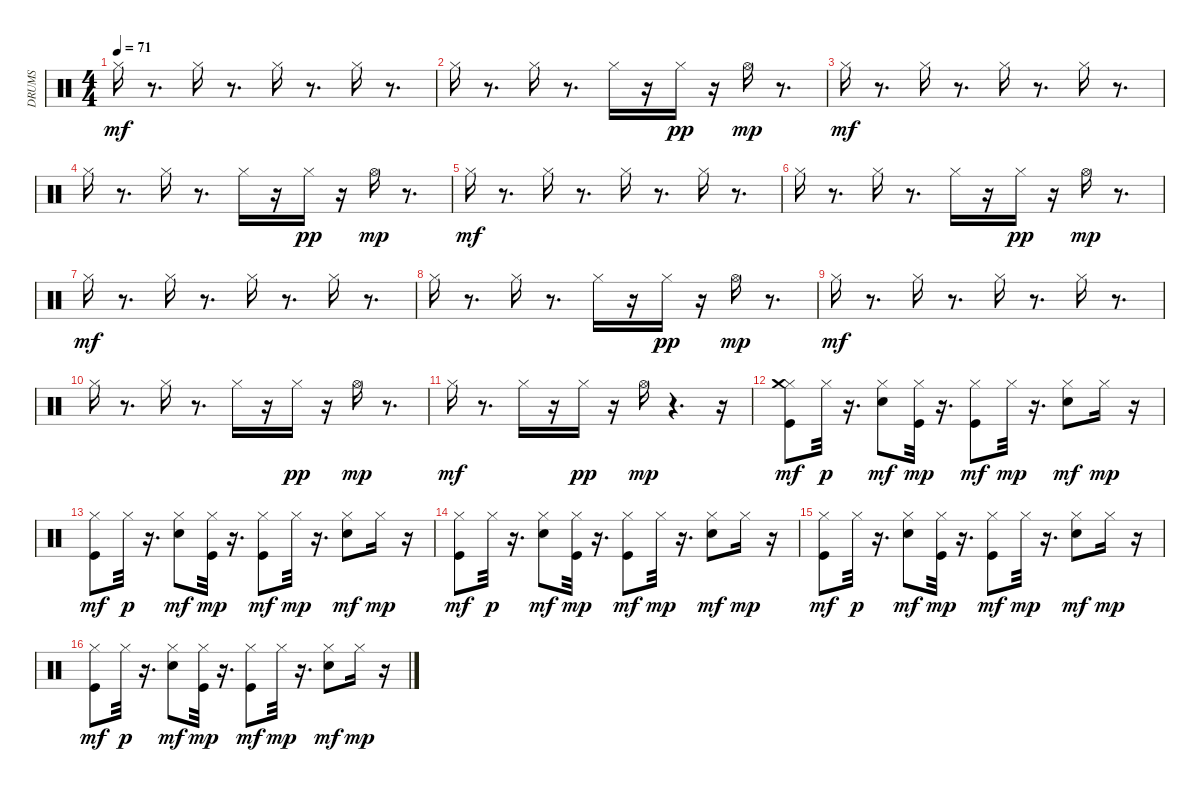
\track ("DRUMS" "DRUMS") {instrument percussion}
\staff {score}
\articulation defaults
\ts (4 4)
\tempo 71
\clef neutral
\ks c "Hi-Hat (closed)".16{dy mf}
r.8{d} "Hi-Hat (closed)".16 r.8{d} "Hi-Hat (closed)".16 r.8{d} "Hi-Hat (closed)".16 r.8{d} |
"Hi-Hat (closed)".16 r.8{d} "Hi-Hat (closed)".16 r.8{d} "Hi-Hat (closed)".16 r.16 "Hi-Hat (closed)".16{dy pp} r.16 "Hi-Hat (open)".16{dy mp} r.8{d} |
"Hi-Hat (closed)".16{dy mf} r.8{d} "Hi-Hat (closed)".16 r.8{d} "Hi-Hat (closed)".16 r.8{d} "Hi-Hat (closed)".16 r.8{d} |
"Hi-Hat (closed)".16 r.8{d} "Hi-Hat (closed)".16 r.8{d} "Hi-Hat (closed)".16 r.16 "Hi-Hat (closed)".16{dy pp} r.16 "Hi-Hat (open)".16{dy mp} r.8{d} |
"Hi-Hat (closed)".16{dy mf} r.8{d} "Hi-Hat (closed)".16 r.8{d} "Hi-Hat (closed)".16 r.8{d} "Hi-Hat (closed)".16 r.8{d} |
"Hi-Hat (closed)".16 r.8{d} "Hi-Hat (closed)".16 r.8{d} "Hi-Hat (closed)".16 r.16 "Hi-Hat (closed)".16{dy pp} r.16 "Hi-Hat (open)".16{dy mp} r.8{d} |
"Hi-Hat (closed)".16{dy mf} r.8{d} "Hi-Hat (closed)".16 r.8{d} "Hi-Hat (closed)".16 r.8{d} "Hi-Hat (closed)".16 r.8{d} |
"Hi-Hat (closed)".16 r.8{d} "Hi-Hat (closed)".16 r.8{d} "Hi-Hat (closed)".16 r.16 "Hi-Hat (closed)".16{dy pp} r.16 "Hi-Hat (open)".16{dy mp} r.8{d} |
"Hi-Hat (closed)".16{dy mf} r.8{d} "Hi-Hat (closed)".16 r.8{d} "Hi-Hat (closed)".16 r.8{d} "Hi-Hat (closed)".16 r.8{d} |
"Hi-Hat (closed)".16 r.8{d} "Hi-Hat (closed)".16 r.8{d} "Hi-Hat (closed)".16 r.16 "Hi-Hat (closed)".16{dy pp} r.16 "Hi-Hat (open)".16{dy mp} r.8{d} |
"Hi-Hat (closed)".16{dy mf} r.8{d} "Hi-Hat (closed)".16 r.16 "Hi-Hat (closed)".16{dy pp} r.16 "Hi-Hat (open)".16{dy mp} r.4{d} r.16 |
("Kick (hit)" "Hi-Hat (closed)" "Crash medium (hit)").8{dy mf} "Hi-Hat (closed)".32{dy p} r.16{d} ("Snare (hit) 2" "Hi-Hat (closed)").8{dy mf} ("Hi-Hat (closed)" "Kick (hit)").32{dy mp} r.16{d} ("Kick (hit)" "Hi-Hat (closed)").8{dy mf} "Hi-Hat (closed)".32{dy mp} r.16{d} ("Snare (hit) 2" "Hi-Hat (closed)").8{dy mf} "Hi-Hat (closed)".16{dy mp} r.16 |
("Kick (hit)" "Hi-Hat (closed)").8{dy mf} "Hi-Hat (closed)".32{dy p} r.16{d} ("Snare (hit) 2" "Hi-Hat (closed)").8{dy mf} ("Kick (hit)" "Hi-Hat (closed)").32{dy mp} r.16{d} ("Kick (hit)" "Hi-Hat (closed)").8{dy mf} "Hi-Hat (closed)".32{dy mp} r.16{d} ("Snare (hit) 2" "Hi-Hat (closed)").8{dy mf} "Hi-Hat (closed)".16{dy mp} r.16 |
("Kick (hit)" "Hi-Hat (closed)").8{dy mf} "Hi-Hat (closed)".32{dy p} r.16{d} ("Snare (hit) 2" "Hi-Hat (closed)").8{dy mf} ("Hi-Hat (closed)" "Kick (hit)").32{dy mp} r.16{d} ("Kick (hit)" "Hi-Hat (closed)").8{dy mf} "Hi-Hat (closed)".32{dy mp} r.16{d} ("Snare (hit) 2" "Hi-Hat (closed)").8{dy mf} "Hi-Hat (closed)".16{dy mp} r.16 |
("Kick (hit)" "Hi-Hat (closed)").8{dy mf} "Hi-Hat (closed)".32{dy p} r.16{d} ("Snare (hit) 2" "Hi-Hat (closed)").8{dy mf} ("Kick (hit)" "Hi-Hat (closed)").32{dy mp} r.16{d} ("Kick (hit)" "Hi-Hat (closed)").8{dy mf} "Hi-Hat (closed)".32{dy mp} r.16{d} ("Snare (hit) 2" "Hi-Hat (closed)").8{dy mf} "Hi-Hat (closed)".16{dy mp} r.16 |
("Kick (hit)" "Hi-Hat (closed)").8{dy mf} "Hi-Hat (closed)".32{dy p} r.16{d} ("Snare (hit) 2" "Hi-Hat (closed)").8{dy mf} ("Hi-Hat (closed)" "Kick (hit)").32{dy mp} r.16{d} ("Kick (hit)" "Hi-Hat (closed)").8{dy mf} "Hi-Hat (closed)".32{dy mp} r.16{d} ("Snare (hit) 2" "Hi-Hat (closed)").8{dy mf} "Hi-Hat (closed)".16{dy mp} r.16
